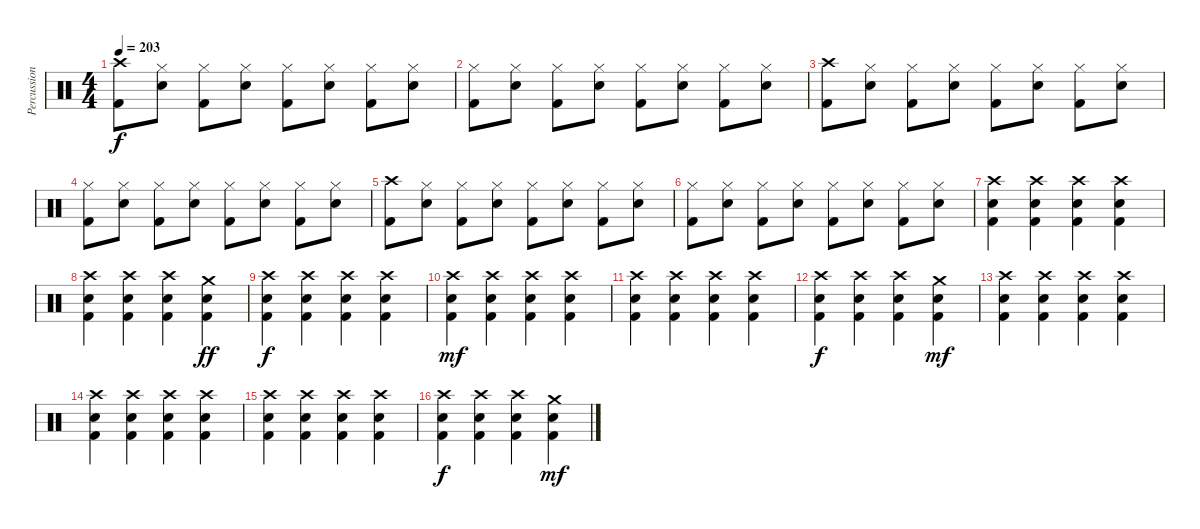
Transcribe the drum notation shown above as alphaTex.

\track ("Percussion" "Percussion") {instrument percussion}
\staff {score}
\articulation defaults
\ts (4 4)
\tempo 203
\clef neutral
\ks c
("Crash high (hit)" "Kick (hit) 2").8{dy f} ("Hi-Hat (closed)" "Electric Snare (hit)").8 ("Hi-Hat (closed)" "Kick (hit) 2").8 ("Hi-Hat (closed)" "Electric Snare (hit)").8 ("Hi-Hat (closed)" "Kick (hit) 2").8 ("Hi-Hat (closed)" "Electric Snare (hit)").8 ("Hi-Hat (closed)" "Kick (hit) 2").8 ("Hi-Hat (closed)" "Electric Snare (hit)").8 |
("Hi-Hat (closed)" "Kick (hit) 2").8 ("Hi-Hat (closed)" "Electric Snare (hit)").8 ("Hi-Hat (closed)" "Kick (hit) 2").8 ("Hi-Hat (closed)" "Electric Snare (hit)").8 ("Hi-Hat (closed)" "Kick (hit) 2").8 ("Hi-Hat (closed)" "Electric Snare (hit)").8 ("Hi-Hat (closed)" "Kick (hit) 2").8 ("Hi-Hat (closed)" "Electric Snare (hit)").8 |
("Crash high (hit)" "Kick (hit) 2").8 ("Hi-Hat (closed)" "Electric Snare (hit)").8 ("Hi-Hat (closed)" "Kick (hit) 2").8 ("Hi-Hat (closed)" "Electric Snare (hit)").8 ("Hi-Hat (closed)" "Kick (hit) 2").8 ("Hi-Hat (closed)" "Electric Snare (hit)").8 ("Hi-Hat (closed)" "Kick (hit) 2").8 ("Hi-Hat (closed)" "Electric Snare (hit)").8 |
("Hi-Hat (closed)" "Kick (hit) 2").8 ("Hi-Hat (closed)" "Electric Snare (hit)").8 ("Hi-Hat (closed)" "Kick (hit) 2").8 ("Hi-Hat (closed)" "Electric Snare (hit)").8 ("Hi-Hat (closed)" "Kick (hit) 2").8 ("Hi-Hat (closed)" "Electric Snare (hit)").8 ("Hi-Hat (closed)" "Kick (hit) 2").8 ("Hi-Hat (closed)" "Electric Snare (hit)").8 |
("Crash high (hit)" "Kick (hit) 2").8 ("Hi-Hat (closed)" "Electric Snare (hit)").8 ("Hi-Hat (closed)" "Kick (hit) 2").8 ("Hi-Hat (closed)" "Electric Snare (hit)").8 ("Hi-Hat (closed)" "Kick (hit) 2").8 ("Hi-Hat (closed)" "Electric Snare (hit)").8 ("Hi-Hat (closed)" "Kick (hit) 2").8 ("Hi-Hat (closed)" "Electric Snare (hit)").8 |
("Hi-Hat (closed)" "Kick (hit) 2").8 ("Hi-Hat (closed)" "Electric Snare (hit)").8 ("Hi-Hat (closed)" "Kick (hit) 2").8 ("Hi-Hat (closed)" "Electric Snare (hit)").8 ("Hi-Hat (closed)" "Kick (hit) 2").8 ("Hi-Hat (closed)" "Electric Snare (hit)").8 ("Hi-Hat (closed)" "Kick (hit) 2").8 ("Hi-Hat (closed)" "Electric Snare (hit)").8 |
("Crash high (hit)" "Electric Snare (hit)" "Kick (hit) 2").4 ("Crash high (hit)" "Electric Snare (hit)" "Kick (hit) 2").4 ("Crash high (hit)" "Electric Snare (hit)" "Kick (hit) 2").4 ("Crash high (hit)" "Electric Snare (hit)" "Kick (hit) 2").4 |
("Crash high (hit)" "Electric Snare (hit)" "Kick (hit) 2").4 ("Crash high (hit)" "Electric Snare (hit)" "Kick (hit) 2").4 ("Crash high (hit)" "Electric Snare (hit)" "Kick (hit) 2").4 ("Crash medium (hit)" "Electric Snare (hit)" "Kick (hit) 2").4{dy ff} |
("Crash high (hit)" "Electric Snare (hit)" "Kick (hit) 2").4{dy f} ("Crash high (hit)" "Electric Snare (hit)" "Kick (hit) 2").4 ("Crash high (hit)" "Electric Snare (hit)" "Kick (hit) 2").4 ("Crash high (hit)" "Electric Snare (hit)" "Kick (hit) 2").4 |
("Crash high (hit)" "Electric Snare (hit)" "Kick (hit) 2").4{dy mf} ("Crash high (hit)" "Electric Snare (hit)" "Kick (hit) 2").4 ("Crash high (hit)" "Electric Snare (hit)" "Kick (hit) 2").4 ("Crash high (hit)" "Electric Snare (hit)" "Kick (hit) 2").4 |
("Crash high (hit)" "Electric Snare (hit)" "Kick (hit) 2").4 ("Crash high (hit)" "Electric Snare (hit)" "Kick (hit) 2").4 ("Crash high (hit)" "Electric Snare (hit)" "Kick (hit) 2").4 ("Crash high (hit)" "Electric Snare (hit)" "Kick (hit) 2").4 |
("Crash high (hit)" "Electric Snare (hit)" "Kick (hit) 2").4{dy f} ("Crash high (hit)" "Electric Snare (hit)" "Kick (hit) 2").4 ("Crash high (hit)" "Electric Snare (hit)" "Kick (hit) 2").4 ("Crash medium (hit)" "Electric Snare (hit)" "Kick (hit) 2").4{dy mf} |
("Crash high (hit)" "Electric Snare (hit)" "Kick (hit) 2").4 ("Crash high (hit)" "Electric Snare (hit)" "Kick (hit) 2").4 ("Crash high (hit)" "Electric Snare (hit)" "Kick (hit) 2").4 ("Crash high (hit)" "Electric Snare (hit)" "Kick (hit) 2").4 |
("Crash high (hit)" "Electric Snare (hit)" "Kick (hit) 2").4 ("Crash high (hit)" "Electric Snare (hit)" "Kick (hit) 2").4 ("Crash high (hit)" "Electric Snare (hit)" "Kick (hit) 2").4 ("Crash high (hit)" "Electric Snare (hit)" "Kick (hit) 2").4 |
("Crash high (hit)" "Electric Snare (hit)" "Kick (hit) 2").4 ("Crash high (hit)" "Electric Snare (hit)" "Kick (hit) 2").4 ("Crash high (hit)" "Electric Snare (hit)" "Kick (hit) 2").4 ("Crash high (hit)" "Electric Snare (hit)" "Kick (hit) 2").4 |
("Crash high (hit)" "Electric Snare (hit)" "Kick (hit) 2").4{dy f} ("Crash high (hit)" "Electric Snare (hit)" "Kick (hit) 2").4 ("Crash high (hit)" "Electric Snare (hit)" "Kick (hit) 2").4 ("Crash medium (hit)" "Electric Snare (hit)" "Kick (hit) 2").4{dy mf}
